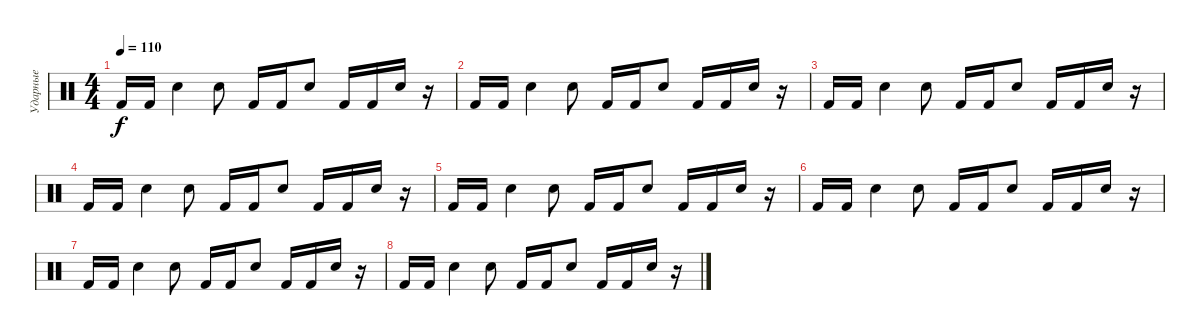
\track ("Ударные" "Ударные") {instrument percussion}
\staff {score}
\articulation defaults
\ts (4 4)
\tempo 110
\clef neutral
\ks c "Kick (hit) 2".16{dy f} "Kick (hit) 2".16 "Electric Snare (hit)".4 "Electric Snare (hit)".8 "Kick (hit) 2".16 "Kick (hit) 2".16 "Electric Snare (hit)".8 "Kick (hit) 2".16 "Kick (hit) 2".16 "Electric Snare (hit)".16
r.16 |
"Kick (hit) 2".16 "Kick (hit) 2".16 "Electric Snare (hit)".4 "Electric Snare (hit)".8 "Kick (hit) 2".16 "Kick (hit) 2".16 "Electric Snare (hit)".8 "Kick (hit) 2".16 "Kick (hit) 2".16 "Electric Snare (hit)".16 r.16 |
"Kick (hit) 2".16 "Kick (hit) 2".16 "Electric Snare (hit)".4 "Electric Snare (hit)".8 "Kick (hit) 2".16 "Kick (hit) 2".16 "Electric Snare (hit)".8 "Kick (hit) 2".16 "Kick (hit) 2".16 "Electric Snare (hit)".16 r.16 |
"Kick (hit) 2".16 "Kick (hit) 2".16 "Electric Snare (hit)".4 "Electric Snare (hit)".8 "Kick (hit) 2".16 "Kick (hit) 2".16 "Electric Snare (hit)".8 "Kick (hit) 2".16 "Kick (hit) 2".16 "Electric Snare (hit)".16 r.16 |
"Kick (hit) 2".16 "Kick (hit) 2".16 "Electric Snare (hit)".4 "Electric Snare (hit)".8 "Kick (hit) 2".16 "Kick (hit) 2".16 "Electric Snare (hit)".8 "Kick (hit) 2".16 "Kick (hit) 2".16 "Electric Snare (hit)".16 r.16 |
"Kick (hit) 2".16 "Kick (hit) 2".16 "Electric Snare (hit)".4 "Electric Snare (hit)".8 "Kick (hit) 2".16 "Kick (hit) 2".16 "Electric Snare (hit)".8 "Kick (hit) 2".16 "Kick (hit) 2".16 "Electric Snare (hit)".16 r.16 |
"Kick (hit) 2".16 "Kick (hit) 2".16 "Electric Snare (hit)".4 "Electric Snare (hit)".8 "Kick (hit) 2".16 "Kick (hit) 2".16 "Electric Snare (hit)".8 "Kick (hit) 2".16 "Kick (hit) 2".16 "Electric Snare (hit)".16 r.16 |
"Kick (hit) 2".16 "Kick (hit) 2".16 "Electric Snare (hit)".4 "Electric Snare (hit)".8 "Kick (hit) 2".16 "Kick (hit) 2".16 "Electric Snare (hit)".8 "Kick (hit) 2".16 "Kick (hit) 2".16 "Electric Snare (hit)".16 r.16
